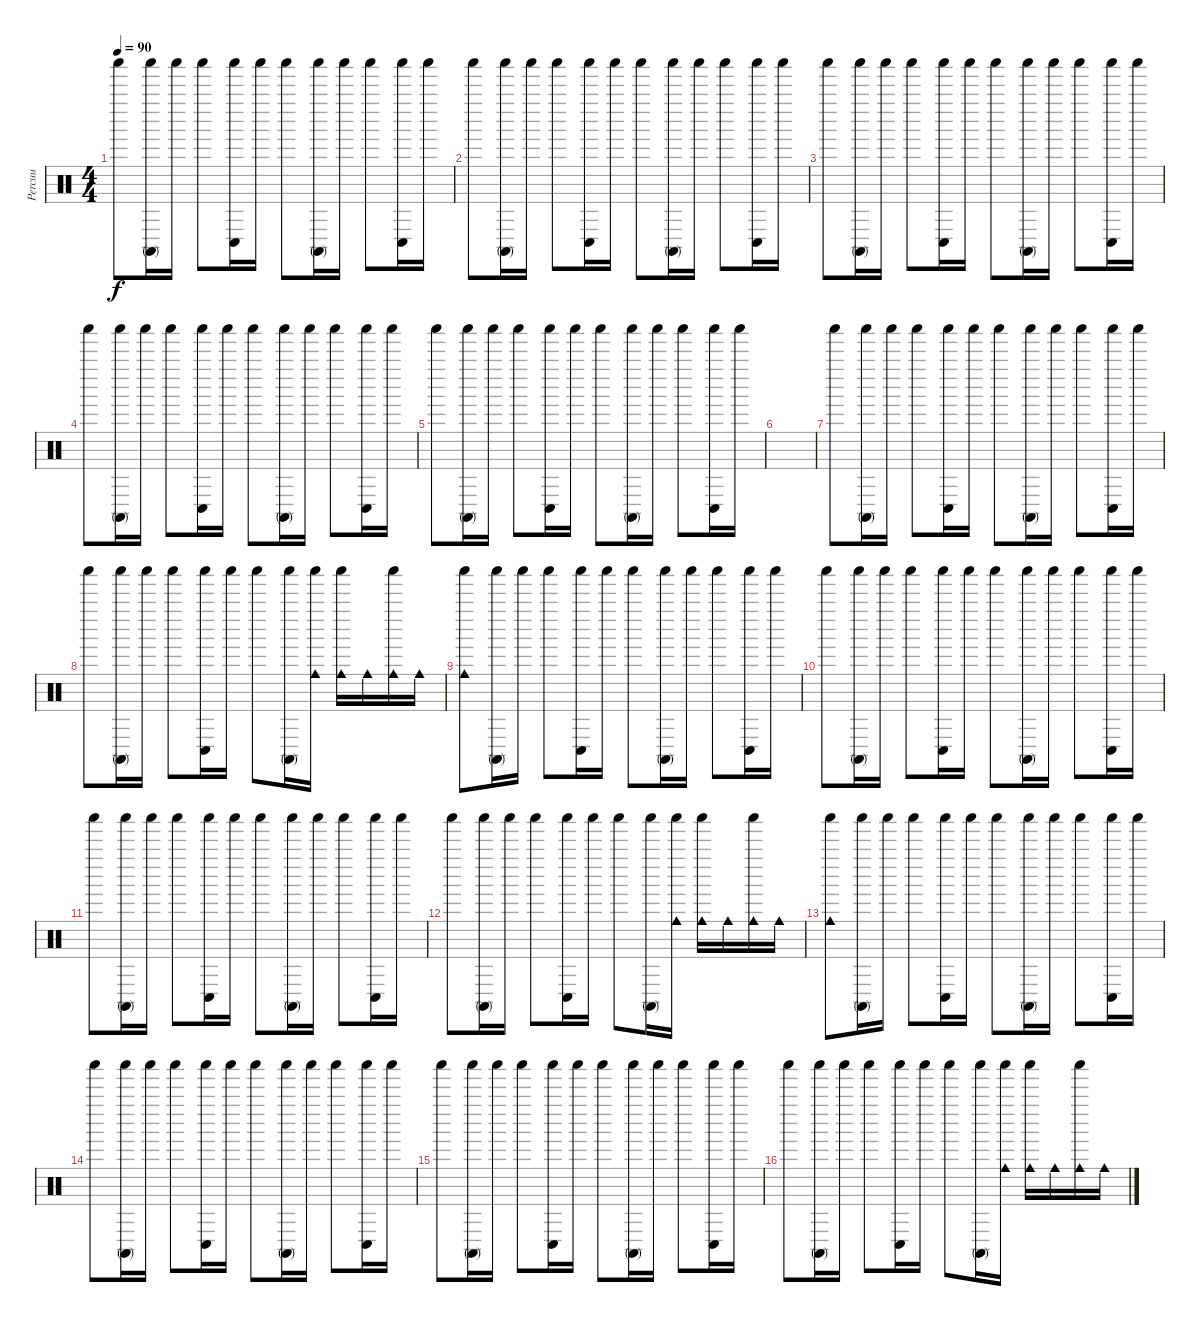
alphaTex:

\track ("Percuu" "Percuu") {instrument percussion}
\staff {score}
\articulation defaults
\ts (4 4)
\tempo 90
\clef neutral
\ks c "Shaker (hit)".8{dy f}
("Conga high (mute)" "Shaker (hit)").16 "Shaker (hit)".16 "Shaker (hit)".8 ("Conga low (hit)" "Shaker (hit)").16 "Shaker (hit)".16 "Shaker (hit)".8 ("Conga high (mute)" "Shaker (hit)").16 "Shaker (hit)".16 "Shaker (hit)".8 ("Conga low (hit)" "Shaker (hit)").16 "Shaker (hit)".16 |
"Shaker (hit)".8 ("Conga high (mute)" "Shaker (hit)").16 "Shaker (hit)".16 "Shaker (hit)".8 ("Conga low (hit)" "Shaker (hit)").16 "Shaker (hit)".16 "Shaker (hit)".8 ("Conga high (mute)" "Shaker (hit)").16 "Shaker (hit)".16 "Shaker (hit)".8 ("Conga low (hit)" "Shaker (hit)").16 "Shaker (hit)".16 |
"Shaker (hit)".8 ("Conga high (mute)" "Shaker (hit)").16 "Shaker (hit)".16 "Shaker (hit)".8 ("Conga low (hit)" "Shaker (hit)").16 "Shaker (hit)".16 "Shaker (hit)".8 ("Conga high (mute)" "Shaker (hit)").16 "Shaker (hit)".16 "Shaker (hit)".8 ("Conga low (hit)" "Shaker (hit)").16 "Shaker (hit)".16 |
"Shaker (hit)".8 ("Conga high (mute)" "Shaker (hit)").16 "Shaker (hit)".16 "Shaker (hit)".8 ("Conga low (hit)" "Shaker (hit)").16 "Shaker (hit)".16 "Shaker (hit)".8 ("Conga high (mute)" "Shaker (hit)").16 "Shaker (hit)".16 "Shaker (hit)".8 ("Conga low (hit)" "Shaker (hit)").16 "Shaker (hit)".16 |
"Shaker (hit)".8 ("Conga high (mute)" "Shaker (hit)").16 "Shaker (hit)".16 "Shaker (hit)".8 ("Conga low (hit)" "Shaker (hit)").16 "Shaker (hit)".16 "Shaker (hit)".8 ("Conga high (mute)" "Shaker (hit)").16 "Shaker (hit)".16 "Shaker (hit)".8 ("Conga low (hit)" "Shaker (hit)").16 "Shaker (hit)".16 |
|
"Shaker (hit)".8 ("Conga high (mute)" "Shaker (hit)").16 "Shaker (hit)".16 "Shaker (hit)".8 ("Conga low (hit)" "Shaker (hit)").16 "Shaker (hit)".16 "Shaker (hit)".8 ("Conga high (mute)" "Shaker (hit)").16 "Shaker (hit)".16 "Shaker (hit)".8 ("Conga low (hit)" "Shaker (hit)").16 "Shaker (hit)".16 |
"Shaker (hit)".8 ("Conga high (mute)" "Shaker (hit)").16 "Shaker (hit)".16 "Shaker (hit)".8 ("Conga low (hit)" "Shaker (hit)").16 "Shaker (hit)".16 "Shaker (hit)".8 ("Conga high (mute)" "Shaker (hit)").16 ("Cowbell medium (hit)" "Shaker (hit)").16 ("Cowbell medium (hit)" "Shaker (hit)").16 "Cowbell medium (hit)".16 ("Cowbell medium (hit)" "Shaker (hit)").16 "Cowbell medium (hit)".16 |
("Cowbell medium (hit)" "Shaker (hit)").8 ("Conga high (mute)" "Shaker (hit)").16 "Shaker (hit)".16 "Shaker (hit)".8 ("Conga low (hit)" "Shaker (hit)").16 "Shaker (hit)".16 "Shaker (hit)".8 ("Conga high (mute)" "Shaker (hit)").16 "Shaker (hit)".16 "Shaker (hit)".8 ("Conga low (hit)" "Shaker (hit)").16 "Shaker (hit)".16 |
"Shaker (hit)".8 ("Conga high (mute)" "Shaker (hit)").16 "Shaker (hit)".16 "Shaker (hit)".8 ("Conga low (hit)" "Shaker (hit)").16 "Shaker (hit)".16 "Shaker (hit)".8 ("Conga high (mute)" "Shaker (hit)").16 "Shaker (hit)".16 "Shaker (hit)".8 ("Conga low (hit)" "Shaker (hit)").16 "Shaker (hit)".16 |
"Shaker (hit)".8 ("Conga high (mute)" "Shaker (hit)").16 "Shaker (hit)".16 "Shaker (hit)".8 ("Conga low (hit)" "Shaker (hit)").16 "Shaker (hit)".16 "Shaker (hit)".8 ("Conga high (mute)" "Shaker (hit)").16 "Shaker (hit)".16 "Shaker (hit)".8 ("Conga low (hit)" "Shaker (hit)").16 "Shaker (hit)".16 |
"Shaker (hit)".8 ("Conga high (mute)" "Shaker (hit)").16 "Shaker (hit)".16 "Shaker (hit)".8 ("Conga low (hit)" "Shaker (hit)").16 "Shaker (hit)".16 "Shaker (hit)".8 ("Conga high (mute)" "Shaker (hit)").16 ("Cowbell medium (hit)" "Shaker (hit)").16 ("Cowbell medium (hit)" "Shaker (hit)").16 "Cowbell medium (hit)".16 ("Cowbell medium (hit)" "Shaker (hit)").16 "Cowbell medium (hit)".16 |
("Cowbell medium (hit)" "Shaker (hit)").8 ("Conga high (mute)" "Shaker (hit)").16 "Shaker (hit)".16 "Shaker (hit)".8 ("Conga low (hit)" "Shaker (hit)").16 "Shaker (hit)".16 "Shaker (hit)".8 ("Conga high (mute)" "Shaker (hit)").16 "Shaker (hit)".16 "Shaker (hit)".8 ("Conga low (hit)" "Shaker (hit)").16 "Shaker (hit)".16 |
"Shaker (hit)".8 ("Conga high (mute)" "Shaker (hit)").16 "Shaker (hit)".16 "Shaker (hit)".8 ("Conga low (hit)" "Shaker (hit)").16 "Shaker (hit)".16 "Shaker (hit)".8 ("Conga high (mute)" "Shaker (hit)").16 "Shaker (hit)".16 "Shaker (hit)".8 ("Conga low (hit)" "Shaker (hit)").16 "Shaker (hit)".16 |
"Shaker (hit)".8 ("Conga high (mute)" "Shaker (hit)").16 "Shaker (hit)".16 "Shaker (hit)".8 ("Conga low (hit)" "Shaker (hit)").16 "Shaker (hit)".16 "Shaker (hit)".8 ("Conga high (mute)" "Shaker (hit)").16 "Shaker (hit)".16 "Shaker (hit)".8 ("Conga low (hit)" "Shaker (hit)").16 "Shaker (hit)".16 |
"Shaker (hit)".8 ("Conga high (mute)" "Shaker (hit)").16 "Shaker (hit)".16 "Shaker (hit)".8 ("Conga low (hit)" "Shaker (hit)").16 "Shaker (hit)".16 "Shaker (hit)".8 ("Conga high (mute)" "Shaker (hit)").16 ("Cowbell medium (hit)" "Shaker (hit)").16 ("Cowbell medium (hit)" "Shaker (hit)").16 "Cowbell medium (hit)".16 ("Cowbell medium (hit)" "Shaker (hit)").16 "Cowbell medium (hit)".16
